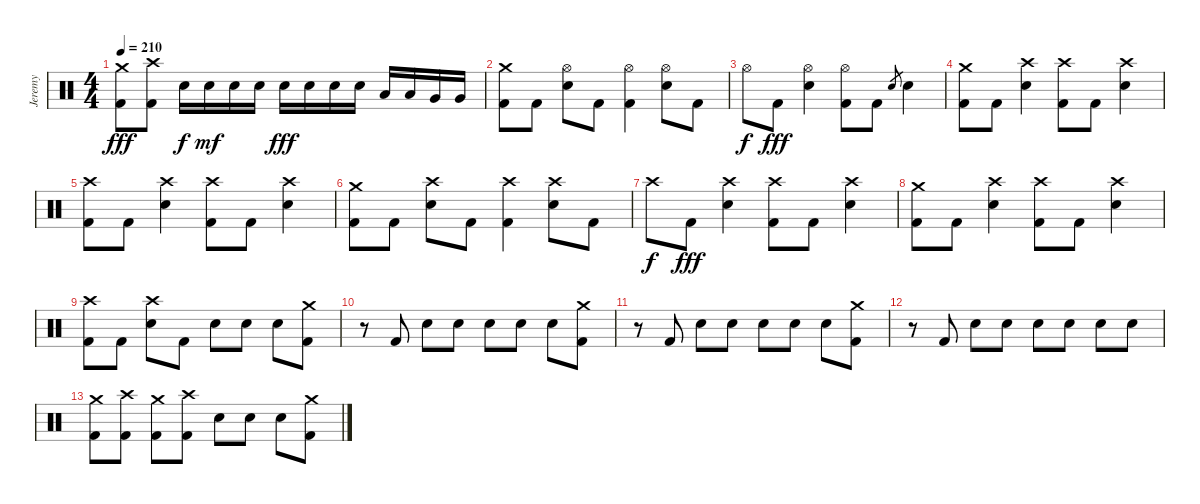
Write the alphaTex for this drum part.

\track ("Jeremy" "Jeremy") {instrument percussion}
\staff {score}
\articulation defaults
\ts (4 4)
\tempo 210
\clef neutral
\ks c
("Crash medium (hit)" "Kick (hit) 2").8{dy fff} ("Crash high (hit)" "Kick (hit) 2").8 "Electric Snare (hit)".16{dy f} "Electric Snare (hit)".16{dy mf} "Electric Snare (hit)".16 "Electric Snare (hit)".16 "Electric Snare (hit)".16{dy fff} "Electric Snare (hit)".16 "Electric Snare (hit)".16 "Electric Snare (hit)".16 "Low Tom (hit)".16 "Low Tom (hit)".16 "Very Low Tom (hit)".16 "Very Low Tom (hit)".16 |
("Crash medium (hit)" "Kick (hit) 2").8 "Kick (hit) 2".8 ("Hi-Hat (open)" "Electric Snare (hit)").8 "Kick (hit) 2".8 ("Hi-Hat (open)" "Kick (hit) 2").4 ("Hi-Hat (open)" "Electric Snare (hit)").8 "Kick (hit) 2".8 |
"Hi-Hat (open)".8{dy f} "Kick (hit) 2".8{dy fff} ("Hi-Hat (open)" "Electric Snare (hit)").4 ("Hi-Hat (open)" "Kick (hit) 2").8 "Kick (hit) 2".8 "Electric Snare (hit)".8{gr} "Electric Snare (hit)".4 |
("Crash medium (hit)" "Kick (hit) 2").8 "Kick (hit) 2".8 ("Crash high (hit)" "Electric Snare (hit)").4 ("Crash high (hit)" "Kick (hit) 2").8 "Kick (hit) 2".8 ("Crash high (hit)" "Electric Snare (hit)").4 |
("Crash high (hit)" "Kick (hit) 2").8 "Kick (hit) 2".8 ("Crash high (hit)" "Electric Snare (hit)").4 ("Crash high (hit)" "Kick (hit) 2").8 "Kick (hit) 2".8 ("Crash high (hit)" "Electric Snare (hit)").4 |
("Crash medium (hit)" "Kick (hit) 2").8 "Kick (hit) 2".8 ("Crash high (hit)" "Electric Snare (hit)").8 "Kick (hit) 2".8 ("Crash high (hit)" "Kick (hit) 2").4 ("Crash high (hit)" "Electric Snare (hit)").8 "Kick (hit) 2".8 |
"Crash high (hit)".8{dy f} "Kick (hit) 2".8{dy fff} ("Crash high (hit)" "Electric Snare (hit)").4 ("Crash high (hit)" "Kick (hit) 2").8 "Kick (hit) 2".8 ("Crash high (hit)" "Electric Snare (hit)").4 |
("Crash medium (hit)" "Kick (hit) 2").8 "Kick (hit) 2".8 ("Crash high (hit)" "Electric Snare (hit)").4 ("Crash high (hit)" "Kick (hit) 2").8 "Kick (hit) 2".8 ("Crash high (hit)" "Electric Snare (hit)").4 |
("Crash high (hit)" "Kick (hit) 2").8 "Kick (hit) 2".8 ("Crash high (hit)" "Electric Snare (hit)").8 "Kick (hit) 2".8 "Electric Snare (hit)".8 "Electric Snare (hit)".8 "Electric Snare (hit)".8 ("Crash medium (hit)" "Kick (hit) 2").8 |
r.8 "Kick (hit) 2".8 "Electric Snare (hit)".8 "Electric Snare (hit)".8 "Electric Snare (hit)".8 "Electric Snare (hit)".8 "Electric Snare (hit)".8 ("Crash medium (hit)" "Kick (hit) 2").8 |
r.8 "Kick (hit) 2".8 "Electric Snare (hit)".8 "Electric Snare (hit)".8 "Electric Snare (hit)".8 "Electric Snare (hit)".8 "Electric Snare (hit)".8 ("Crash medium (hit)" "Kick (hit) 2").8 |
r.8 "Kick (hit) 2".8 "Electric Snare (hit)".8 "Electric Snare (hit)".8 "Electric Snare (hit)".8 "Electric Snare (hit)".8 "Electric Snare (hit)".8 "Electric Snare (hit)".8 |
("Crash medium (hit)" "Kick (hit) 2").8 ("Crash high (hit)" "Kick (hit) 2").8 ("Crash medium (hit)" "Kick (hit) 2").8 ("Crash high (hit)" "Kick (hit) 2").8 "Electric Snare (hit)".8 "Electric Snare (hit)".8 "Electric Snare (hit)".8 ("Crash medium (hit)" "Kick (hit) 2").8
